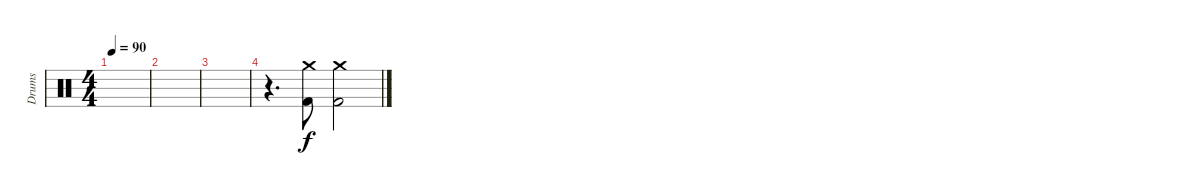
\track ("Drums" "Drums") {instrument percussion}
\staff {score}
\articulation defaults
\ts (4 4)
\tempo 90
\clef neutral
\ks c
|
|
|
r.4{d} ("Crash medium (hit)" "Kick (hit) 2").8 ("Crash medium (hit)" "Kick (hit) 2").2
